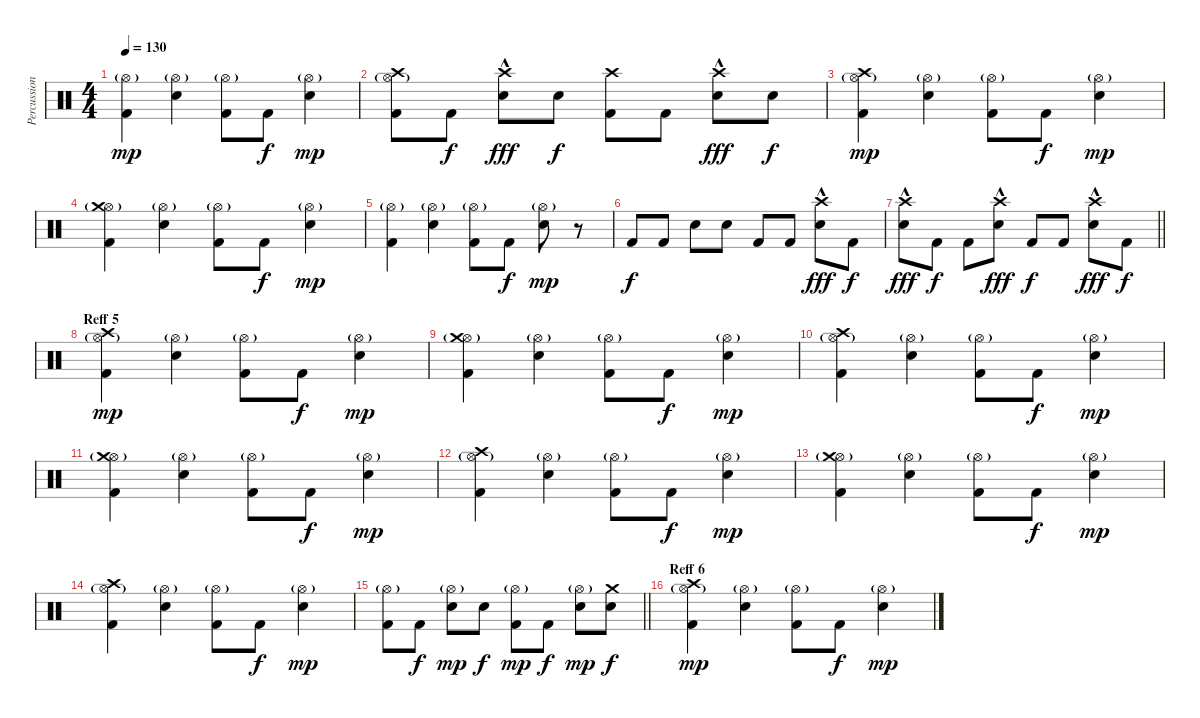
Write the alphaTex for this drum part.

\track ("Percussion 1" "Percussion") {instrument percussion}
\staff {score}
\articulation defaults
\ts (4 4)
\tempo 130
\clef neutral
\ks c
("Hi-Hat (open)"{g} "Kick (hit) 2").4{dy mp} ("Hi-Hat (open)"{g} "Electric Snare (hit)").4 ("Hi-Hat (open)"{g} "Kick (hit) 2").8 "Kick (hit) 2".8{dy f} ("Hi-Hat (open)"{g} "Electric Snare (hit)").4{dy mp} |
("Hi-Hat (open)"{g} "Crash high (hit)" "Kick (hit) 2").8 "Kick (hit) 2".8{dy f} ("Crash high (hit)" "Electric Snare (hit)"{hac}).8{dy fff} "Electric Snare (hit)".8{dy f} ("Crash high (hit)" "Kick (hit) 2").8 "Kick (hit) 2".8 ("Crash high (hit)" "Electric Snare (hit)"{hac}).8{dy fff} "Electric Snare (hit)".8{dy f} |
("Hi-Hat (open)"{g} "Crash high (hit)" "Kick (hit) 2").4{dy mp} ("Hi-Hat (open)"{g} "Electric Snare (hit)").4 ("Hi-Hat (open)"{g} "Kick (hit) 2").8 "Kick (hit) 2".8{dy f} ("Hi-Hat (open)"{g} "Electric Snare (hit)").4{dy mp} |
("Hi-Hat (open)"{g} "Crash medium (hit)" "Kick (hit) 2").4 ("Hi-Hat (open)"{g} "Electric Snare (hit)").4 ("Hi-Hat (open)"{g} "Kick (hit) 2").8 "Kick (hit) 2".8{dy f} ("Hi-Hat (open)"{g} "Electric Snare (hit)").4{dy mp} |
("Hi-Hat (open)"{g} "Kick (hit) 2").4 ("Hi-Hat (open)"{g} "Electric Snare (hit)").4 ("Hi-Hat (open)"{g} "Kick (hit) 2").8 "Kick (hit) 2".8{dy f} ("Hi-Hat (open)"{g} "Electric Snare (hit)").8{dy mp} r.8 |
"Kick (hit) 2".8{dy f} "Kick (hit) 2".8 "Electric Snare (hit)".8 "Electric Snare (hit)".8 "Kick (hit) 2".8 "Kick (hit) 2".8 ("Crash high (hit)"{hac} "Electric Snare (hit)"{hac}).8{dy fff} "Kick (hit) 2".8{dy f} |
\barLineRight lightlight
("Crash high (hit)"{hac} "Electric Snare (hit)"{hac}).8{dy fff} "Kick (hit) 2".8{dy f} "Kick (hit) 2".8 ("Crash high (hit)"{hac} "Electric Snare (hit)"{hac}).8{dy fff} "Kick (hit) 2".8{dy f} "Kick (hit) 2".8 ("Crash high (hit)"{hac} "Electric Snare (hit)"{hac}).8{dy fff} "Kick (hit) 2".8{dy f} |
\section ("" "Reff 5")
("Hi-Hat (open)"{g} "Crash high (hit)" "Kick (hit) 2").4{dy mp} ("Hi-Hat (open)"{g} "Electric Snare (hit)").4 ("Hi-Hat (open)"{g} "Kick (hit) 2").8 "Kick (hit) 2".8{dy f} ("Hi-Hat (open)"{g} "Electric Snare (hit)").4{dy mp} |
("Hi-Hat (open)"{g} "Crash medium (hit)" "Kick (hit) 2").4 ("Hi-Hat (open)"{g} "Electric Snare (hit)").4 ("Hi-Hat (open)"{g} "Kick (hit) 2").8 "Kick (hit) 2".8{dy f} ("Hi-Hat (open)"{g} "Electric Snare (hit)").4{dy mp} |
("Hi-Hat (open)"{g} "Crash high (hit)" "Kick (hit) 2").4 ("Hi-Hat (open)"{g} "Electric Snare (hit)").4 ("Hi-Hat (open)"{g} "Kick (hit) 2").8 "Kick (hit) 2".8{dy f} ("Hi-Hat (open)"{g} "Electric Snare (hit)").4{dy mp} |
("Hi-Hat (open)"{g} "Crash medium (hit)" "Kick (hit) 2").4 ("Hi-Hat (open)"{g} "Electric Snare (hit)").4 ("Hi-Hat (open)"{g} "Kick (hit) 2").8 "Kick (hit) 2".8{dy f} ("Hi-Hat (open)"{g} "Electric Snare (hit)").4{dy mp} |
("Hi-Hat (open)"{g} "Crash high (hit)" "Kick (hit) 2").4 ("Hi-Hat (open)"{g} "Electric Snare (hit)").4 ("Hi-Hat (open)"{g} "Kick (hit) 2").8 "Kick (hit) 2".8{dy f} ("Hi-Hat (open)"{g} "Electric Snare (hit)").4{dy mp} |
("Hi-Hat (open)"{g} "Crash medium (hit)" "Kick (hit) 2").4 ("Hi-Hat (open)"{g} "Electric Snare (hit)").4 ("Hi-Hat (open)"{g} "Kick (hit) 2").8 "Kick (hit) 2".8{dy f} ("Hi-Hat (open)"{g} "Electric Snare (hit)").4{dy mp} |
("Hi-Hat (open)"{g} "Crash high (hit)" "Kick (hit) 2").4 ("Hi-Hat (open)"{g} "Electric Snare (hit)").4 ("Hi-Hat (open)"{g} "Kick (hit) 2").8 "Kick (hit) 2".8{dy f} ("Hi-Hat (open)"{g} "Electric Snare (hit)").4{dy mp} |
\barLineRight lightlight
("Hi-Hat (open)"{g} "Kick (hit) 2").8 "Kick (hit) 2".8{dy f} ("Hi-Hat (open)"{g} "Electric Snare (hit)").8{dy mp} "Electric Snare (hit)".8{dy f} ("Hi-Hat (open)"{g} "Kick (hit) 2").8{dy mp} "Kick (hit) 2".8{dy f} ("Hi-Hat (open)"{g} "Electric Snare (hit)").8{dy mp} ("Electric Snare (hit)" "Crash medium (hit)").8{dy f} |
\section ("" "Reff 6")
("Hi-Hat (open)"{g} "Crash high (hit)" "Kick (hit) 2").4{dy mp} ("Hi-Hat (open)"{g} "Electric Snare (hit)").4 ("Hi-Hat (open)"{g} "Kick (hit) 2").8 "Kick (hit) 2".8{dy f} ("Hi-Hat (open)"{g} "Electric Snare (hit)").4{dy mp}
